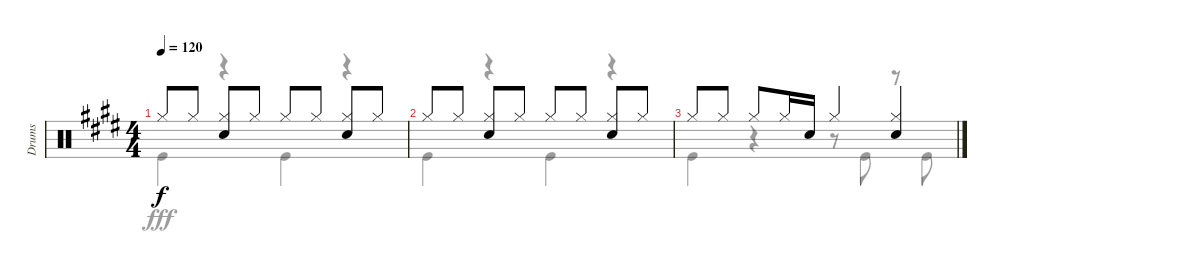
\track ("Drums" "Drums") {instrument percussion}
\staff {score}
\articulation defaults
\voice
\ts (4 4)
\tempo 120
\clef neutral
\ks e "Hi-Hat (closed)".8{dy f} "Hi-Hat (closed)".8
("Hi-Hat (closed)" "Snare (hit) 2").8 "Hi-Hat (closed)".8 "Hi-Hat (closed)".8 "Hi-Hat (closed)".8 ("Hi-Hat (closed)" "Snare (hit) 2").8 "Hi-Hat (closed)".8 |
"Hi-Hat (closed)".8 "Hi-Hat (closed)".8 ("Hi-Hat (closed)" "Snare (hit) 2").8 "Hi-Hat (closed)".8 "Hi-Hat (closed)".8 "Hi-Hat (closed)".8 ("Hi-Hat (closed)" "Snare (hit) 2").8 "Hi-Hat (closed)".8 |
"Hi-Hat (closed)".8 "Hi-Hat (closed)".8 "Hi-Hat (closed)".8 "Hi-Hat (closed)".16 "Snare (hit) 2".16 "Hi-Hat (closed)".4 ("Hi-Hat (closed)" "Snare (hit) 2").4
\voice
\clef neutral
\ottava regular
\simile none
\ks e "Kick (hit)".4{dy fff}
r.4 "Kick (hit)".4 r.4 |
"Kick (hit)".4 r.4 "Kick (hit)".4 r.4 |
"Kick (hit)".4 r.4 r.8 "Kick (hit)".8 r.8 "Kick (hit)".8
